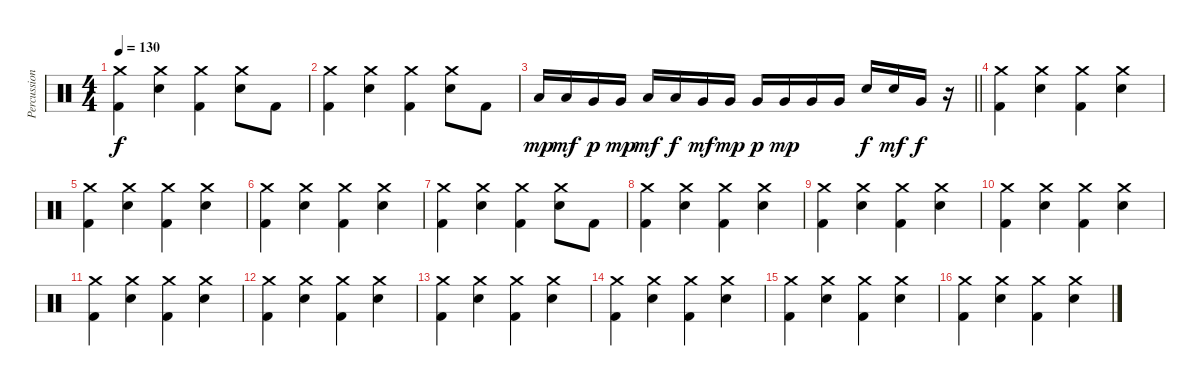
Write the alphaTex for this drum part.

\track ("Percussion" "Percussion") {instrument percussion}
\staff {score}
\articulation defaults
\ts (4 4)
\tempo 130
\clef neutral
\ks c
("Crash medium (hit)" "Kick (hit) 2").4{dy f} ("Crash medium (hit)" "Electric Snare (hit)").4 ("Crash medium (hit)" "Kick (hit) 2").4 ("Crash medium (hit)" "Electric Snare (hit)").8 "Kick (hit) 2".8 |
("Crash medium (hit)" "Kick (hit) 2").4 ("Crash medium (hit)" "Electric Snare (hit)").4 ("Crash medium (hit)" "Kick (hit) 2").4 ("Crash medium (hit)" "Electric Snare (hit)").8 "Kick (hit) 2".8 |
\barLineRight lightlight "Low Tom (hit)".16{dy mp} "Low Tom (hit)".16{dy mf} "Very Low Tom (hit)".16{dy p} "Very Low Tom (hit)".16{dy mp} "Low Tom (hit)".16{dy mf} "Low Tom (hit)".16{dy f} "Very Low Tom (hit)".16{dy mf} "Very Low Tom (hit)".16{dy mp} "Very Low Tom (hit)".16{dy p} "Very Low Tom (hit)".16{dy mp} "Very Low Tom (hit)".16 "Very Low Tom (hit)".16 "Electric Snare (hit)".16{dy f} "Electric Snare (hit)".16{dy mf} "Very Low Tom (hit)".16{dy f}
r.16 |
\section ("" "")
("Crash medium (hit)" "Kick (hit) 2").4 ("Crash medium (hit)" "Electric Snare (hit)").4 ("Crash medium (hit)" "Kick (hit) 2").4 ("Crash medium (hit)" "Electric Snare (hit)").4 |
("Crash medium (hit)" "Kick (hit) 2").4 ("Crash medium (hit)" "Electric Snare (hit)").4 ("Crash medium (hit)" "Kick (hit) 2").4 ("Crash medium (hit)" "Electric Snare (hit)").4 |
("Crash medium (hit)" "Kick (hit) 2").4 ("Crash medium (hit)" "Electric Snare (hit)").4 ("Crash medium (hit)" "Kick (hit) 2").4 ("Crash medium (hit)" "Electric Snare (hit)").4 |
("Crash medium (hit)" "Kick (hit) 2").4 ("Crash medium (hit)" "Electric Snare (hit)").4 ("Crash medium (hit)" "Kick (hit) 2").4 ("Crash medium (hit)" "Electric Snare (hit)").8 "Kick (hit) 2".8 |
("Crash medium (hit)" "Kick (hit) 2").4 ("Crash medium (hit)" "Electric Snare (hit)").4 ("Crash medium (hit)" "Kick (hit) 2").4 ("Crash medium (hit)" "Electric Snare (hit)").4 |
("Crash medium (hit)" "Kick (hit) 2").4 ("Crash medium (hit)" "Electric Snare (hit)").4 ("Crash medium (hit)" "Kick (hit) 2").4 ("Crash medium (hit)" "Electric Snare (hit)").4 |
("Crash medium (hit)" "Kick (hit) 2").4 ("Crash medium (hit)" "Electric Snare (hit)").4 ("Crash medium (hit)" "Kick (hit) 2").4 ("Crash medium (hit)" "Electric Snare (hit)").4 |
("Crash medium (hit)" "Kick (hit) 2").4 ("Crash medium (hit)" "Electric Snare (hit)").4 ("Crash medium (hit)" "Kick (hit) 2").4 ("Crash medium (hit)" "Electric Snare (hit)").4 |
("Crash medium (hit)" "Kick (hit) 2").4 ("Crash medium (hit)" "Electric Snare (hit)").4 ("Crash medium (hit)" "Kick (hit) 2").4 ("Crash medium (hit)" "Electric Snare (hit)").4 |
("Crash medium (hit)" "Kick (hit) 2").4 ("Crash medium (hit)" "Electric Snare (hit)").4 ("Crash medium (hit)" "Kick (hit) 2").4 ("Crash medium (hit)" "Electric Snare (hit)").4 |
("Crash medium (hit)" "Kick (hit) 2").4 ("Crash medium (hit)" "Electric Snare (hit)").4 ("Crash medium (hit)" "Kick (hit) 2").4 ("Crash medium (hit)" "Electric Snare (hit)").4 |
("Crash medium (hit)" "Kick (hit) 2").4 ("Crash medium (hit)" "Electric Snare (hit)").4 ("Crash medium (hit)" "Kick (hit) 2").4 ("Crash medium (hit)" "Electric Snare (hit)").4 |
("Crash medium (hit)" "Kick (hit) 2").4 ("Crash medium (hit)" "Electric Snare (hit)").4 ("Crash medium (hit)" "Kick (hit) 2").4 ("Crash medium (hit)" "Electric Snare (hit)").4
